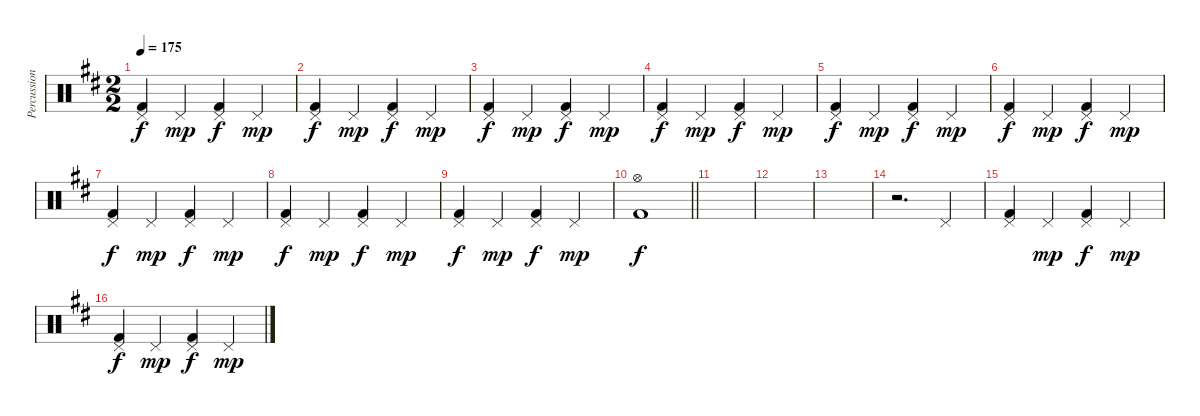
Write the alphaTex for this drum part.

\track ("Percussion" "Percussion") {instrument percussion}
\staff {score}
\articulation defaults
\ts (2 2)
\tempo 175
\clef neutral
\ks d
("Pedal Hi-Hat (hit)" "Kick (hit) 2").4{dy f} "Pedal Hi-Hat (hit)".4{dy mp} ("Pedal Hi-Hat (hit)" "Kick (hit) 2").4{dy f} "Pedal Hi-Hat (hit)".4{dy mp} |
("Pedal Hi-Hat (hit)" "Kick (hit) 2").4{dy f} "Pedal Hi-Hat (hit)".4{dy mp} ("Pedal Hi-Hat (hit)" "Kick (hit) 2").4{dy f} "Pedal Hi-Hat (hit)".4{dy mp} |
("Pedal Hi-Hat (hit)" "Kick (hit) 2").4{dy f} "Pedal Hi-Hat (hit)".4{dy mp} ("Pedal Hi-Hat (hit)" "Kick (hit) 2").4{dy f} "Pedal Hi-Hat (hit)".4{dy mp} |
("Pedal Hi-Hat (hit)" "Kick (hit) 2").4{dy f} "Pedal Hi-Hat (hit)".4{dy mp} ("Pedal Hi-Hat (hit)" "Kick (hit) 2").4{dy f} "Pedal Hi-Hat (hit)".4{dy mp} |
("Pedal Hi-Hat (hit)" "Kick (hit) 2").4{dy f} "Pedal Hi-Hat (hit)".4{dy mp} ("Pedal Hi-Hat (hit)" "Kick (hit) 2").4{dy f} "Pedal Hi-Hat (hit)".4{dy mp} |
("Pedal Hi-Hat (hit)" "Kick (hit) 2").4{dy f} "Pedal Hi-Hat (hit)".4{dy mp} ("Pedal Hi-Hat (hit)" "Kick (hit) 2").4{dy f} "Pedal Hi-Hat (hit)".4{dy mp} |
("Pedal Hi-Hat (hit)" "Kick (hit) 2").4{dy f} "Pedal Hi-Hat (hit)".4{dy mp} ("Pedal Hi-Hat (hit)" "Kick (hit) 2").4{dy f} "Pedal Hi-Hat (hit)".4{dy mp} |
("Pedal Hi-Hat (hit)" "Kick (hit) 2").4{dy f} "Pedal Hi-Hat (hit)".4{dy mp} ("Pedal Hi-Hat (hit)" "Kick (hit) 2").4{dy f} "Pedal Hi-Hat (hit)".4{dy mp} |
("Pedal Hi-Hat (hit)" "Kick (hit) 2").4{dy f} "Pedal Hi-Hat (hit)".4{dy mp} ("Pedal Hi-Hat (hit)" "Kick (hit) 2").4{dy f} "Pedal Hi-Hat (hit)".4{dy mp} |
\barLineRight lightlight
("Hi-Hat (open)" "Kick (hit) 2").1{dy f} |
|
|
|
r.2{d} "Pedal Hi-Hat (hit)".4 |
("Pedal Hi-Hat (hit)" "Kick (hit) 2").4 "Pedal Hi-Hat (hit)".4{dy mp} ("Pedal Hi-Hat (hit)" "Kick (hit) 2").4{dy f} "Pedal Hi-Hat (hit)".4{dy mp} |
("Pedal Hi-Hat (hit)" "Kick (hit) 2").4{dy f} "Pedal Hi-Hat (hit)".4{dy mp} ("Pedal Hi-Hat (hit)" "Kick (hit) 2").4{dy f} "Pedal Hi-Hat (hit)".4{dy mp}
